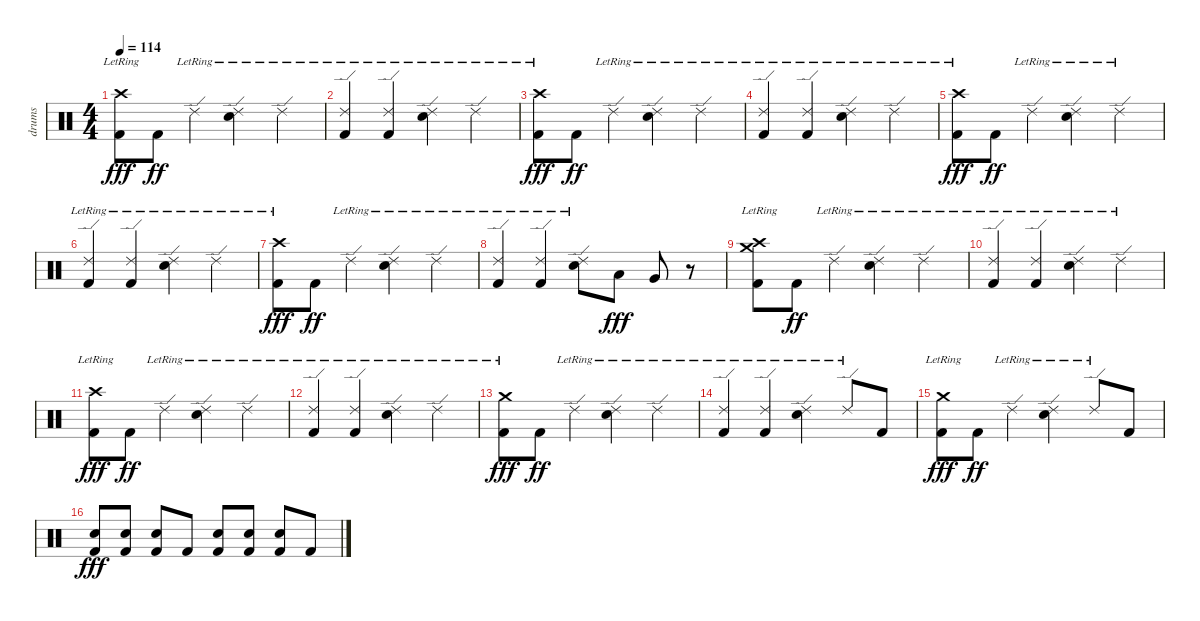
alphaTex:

\track ("drums" "drums") {instrument percussion}
\staff {score}
\articulation defaults
\ts (4 4)
\tempo 114
\clef neutral
\ks c
("Kick (hit) 2" "Crash high (hit)"{lr}).8{dy fff} "Kick (hit) 2".8{dy ff} "Ride (edge) 2"{lr}.4 ("Ride (edge) 2"{lr} "Snare (hit) 2"{lr}).4 "Ride (edge) 2"{lr}.4 |
("Kick (hit) 2" "Ride (edge) 2"{lr}).4 ("Kick (hit) 2" "Ride (edge) 2"{lr}).4 ("Ride (edge) 2"{lr} "Snare (hit) 2"{lr}).4 "Ride (edge) 2"{lr}.4 |
("Kick (hit) 2" "Crash high (hit)"{lr}).8{dy fff} "Kick (hit) 2".8{dy ff} "Ride (edge) 2"{lr}.4 ("Ride (edge) 2"{lr} "Snare (hit) 2"{lr}).4 "Ride (edge) 2"{lr}.4 |
("Kick (hit) 2" "Ride (edge) 2"{lr}).4 ("Kick (hit) 2" "Ride (edge) 2"{lr}).4 ("Ride (edge) 2"{lr} "Snare (hit) 2"{lr}).4 "Ride (edge) 2"{lr}.4 |
("Kick (hit) 2" "Crash high (hit)"{lr}).8{dy fff} "Kick (hit) 2".8{dy ff} "Ride (edge) 2"{lr}.4 ("Ride (edge) 2"{lr} "Snare (hit) 2"{lr}).4 "Ride (edge) 2"{lr}.4 |
("Kick (hit) 2" "Ride (edge) 2"{lr}).4 ("Kick (hit) 2" "Ride (edge) 2"{lr}).4 ("Ride (edge) 2"{lr} "Snare (hit) 2"{lr}).4 "Ride (edge) 2"{lr}.4 |
("Kick (hit) 2" "Crash high (hit)"{lr}).8{dy fff} "Kick (hit) 2".8{dy ff} "Ride (edge) 2"{lr}.4 ("Ride (edge) 2"{lr} "Snare (hit) 2"{lr}).4 "Ride (edge) 2"{lr}.4 |
("Kick (hit) 2" "Ride (edge) 2"{lr}).4 ("Kick (hit) 2" "Ride (edge) 2"{lr}).4 ("Ride (edge) 2"{lr} "Snare (hit) 2"{lr}).8 "Low Tom (hit)".8{dy fff} "Very Low Tom (hit)".8 r.8 |
("Kick (hit) 2" "Crash high (hit)"{lr} "Crash medium (hit)"{lr}).8 "Kick (hit) 2".8{dy ff} "Ride (edge) 2"{lr}.4 ("Ride (edge) 2"{lr} "Snare (hit) 2"{lr}).4 "Ride (edge) 2"{lr}.4 |
("Kick (hit) 2" "Ride (edge) 2"{lr}).4 ("Kick (hit) 2" "Ride (edge) 2"{lr}).4 ("Ride (edge) 2"{lr} "Snare (hit) 2"{lr}).4 "Ride (edge) 2"{lr}.4 |
("Kick (hit) 2" "Crash high (hit)"{lr}).8{dy fff} "Kick (hit) 2".8{dy ff} "Ride (edge) 2"{lr}.4 ("Ride (edge) 2"{lr} "Snare (hit) 2"{lr}).4 "Ride (edge) 2"{lr}.4 |
("Kick (hit) 2" "Ride (edge) 2"{lr}).4 ("Kick (hit) 2" "Ride (edge) 2"{lr}).4 ("Ride (edge) 2"{lr} "Snare (hit) 2"{lr}).4 "Ride (edge) 2"{lr}.4 |
("Kick (hit) 2" "Crash medium (hit)"{lr}).8{dy fff} "Kick (hit) 2".8{dy ff} "Ride (edge) 2"{lr}.4 ("Ride (edge) 2"{lr} "Snare (hit) 2"{lr}).4 "Ride (edge) 2"{lr}.4 |
("Kick (hit) 2" "Ride (edge) 2"{lr}).4 ("Kick (hit) 2" "Ride (edge) 2"{lr}).4 ("Ride (edge) 2"{lr} "Snare (hit) 2"{lr}).4 "Ride (edge) 2"{lr}.8 "Kick (hit) 2".8 |
("Kick (hit) 2" "Crash medium (hit)"{lr}).8{dy fff} "Kick (hit) 2".8{dy ff} "Ride (edge) 2"{lr}.4 ("Ride (edge) 2"{lr} "Snare (hit) 2"{lr}).4 "Ride (edge) 2"{lr}.8 "Kick (hit) 2".8 |
("Kick (hit) 2" "Snare (hit) 2").8{dy fff} ("Kick (hit) 2" "Snare (hit) 2").8 ("Kick (hit) 2" "Snare (hit) 2").8 "Kick (hit) 2".8 ("Kick (hit) 2" "Snare (hit) 2").8 ("Kick (hit) 2" "Snare (hit) 2").8 ("Kick (hit) 2" "Snare (hit) 2").8 "Kick (hit) 2".8
